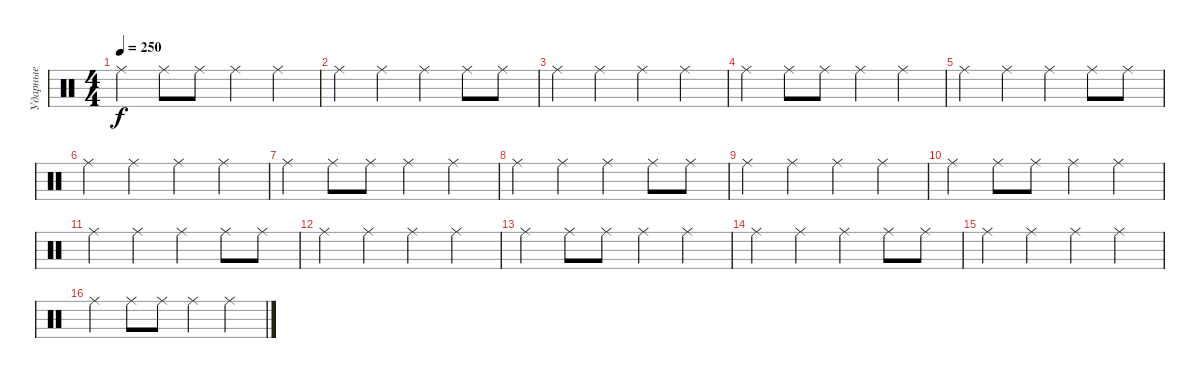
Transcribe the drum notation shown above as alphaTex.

\track ("Ударные" "Ударные") {instrument percussion}
\staff {score}
\articulation defaults
\ts (4 4)
\tempo 250
\clef neutral
\ks c "Ride (middle)".4{dy f} "Ride (middle)".8 "Ride (middle)".8 "Ride (middle)".4 "Ride (middle)".4
|
"Ride (middle)".4 "Ride (middle)".4 "Ride (middle)".4 "Ride (middle)".8 "Ride (middle)".8 |
"Ride (middle)".4 "Ride (middle)".4 "Ride (middle)".4 "Ride (middle)".4 |
"Ride (middle)".4 "Ride (middle)".8 "Ride (middle)".8 "Ride (middle)".4 "Ride (middle)".4 |
"Ride (middle)".4 "Ride (middle)".4 "Ride (middle)".4 "Ride (middle)".8 "Ride (middle)".8 |
"Ride (middle)".4 "Ride (middle)".4 "Ride (middle)".4 "Ride (middle)".4 |
"Ride (middle)".4 "Ride (middle)".8 "Ride (middle)".8 "Ride (middle)".4 "Ride (middle)".4 |
"Ride (middle)".4 "Ride (middle)".4 "Ride (middle)".4 "Ride (middle)".8 "Ride (middle)".8 |
"Ride (middle)".4 "Ride (middle)".4 "Ride (middle)".4 "Ride (middle)".4 |
"Ride (middle)".4 "Ride (middle)".8 "Ride (middle)".8 "Ride (middle)".4 "Ride (middle)".4 |
"Ride (middle)".4 "Ride (middle)".4 "Ride (middle)".4 "Ride (middle)".8 "Ride (middle)".8 |
"Ride (middle)".4 "Ride (middle)".4 "Ride (middle)".4 "Ride (middle)".4 |
"Ride (middle)".4 "Ride (middle)".8 "Ride (middle)".8 "Ride (middle)".4 "Ride (middle)".4 |
"Ride (middle)".4 "Ride (middle)".4 "Ride (middle)".4 "Ride (middle)".8 "Ride (middle)".8 |
"Ride (middle)".4 "Ride (middle)".4 "Ride (middle)".4 "Ride (middle)".4 |
"Ride (middle)".4 "Ride (middle)".8 "Ride (middle)".8 "Ride (middle)".4 "Ride (middle)".4
